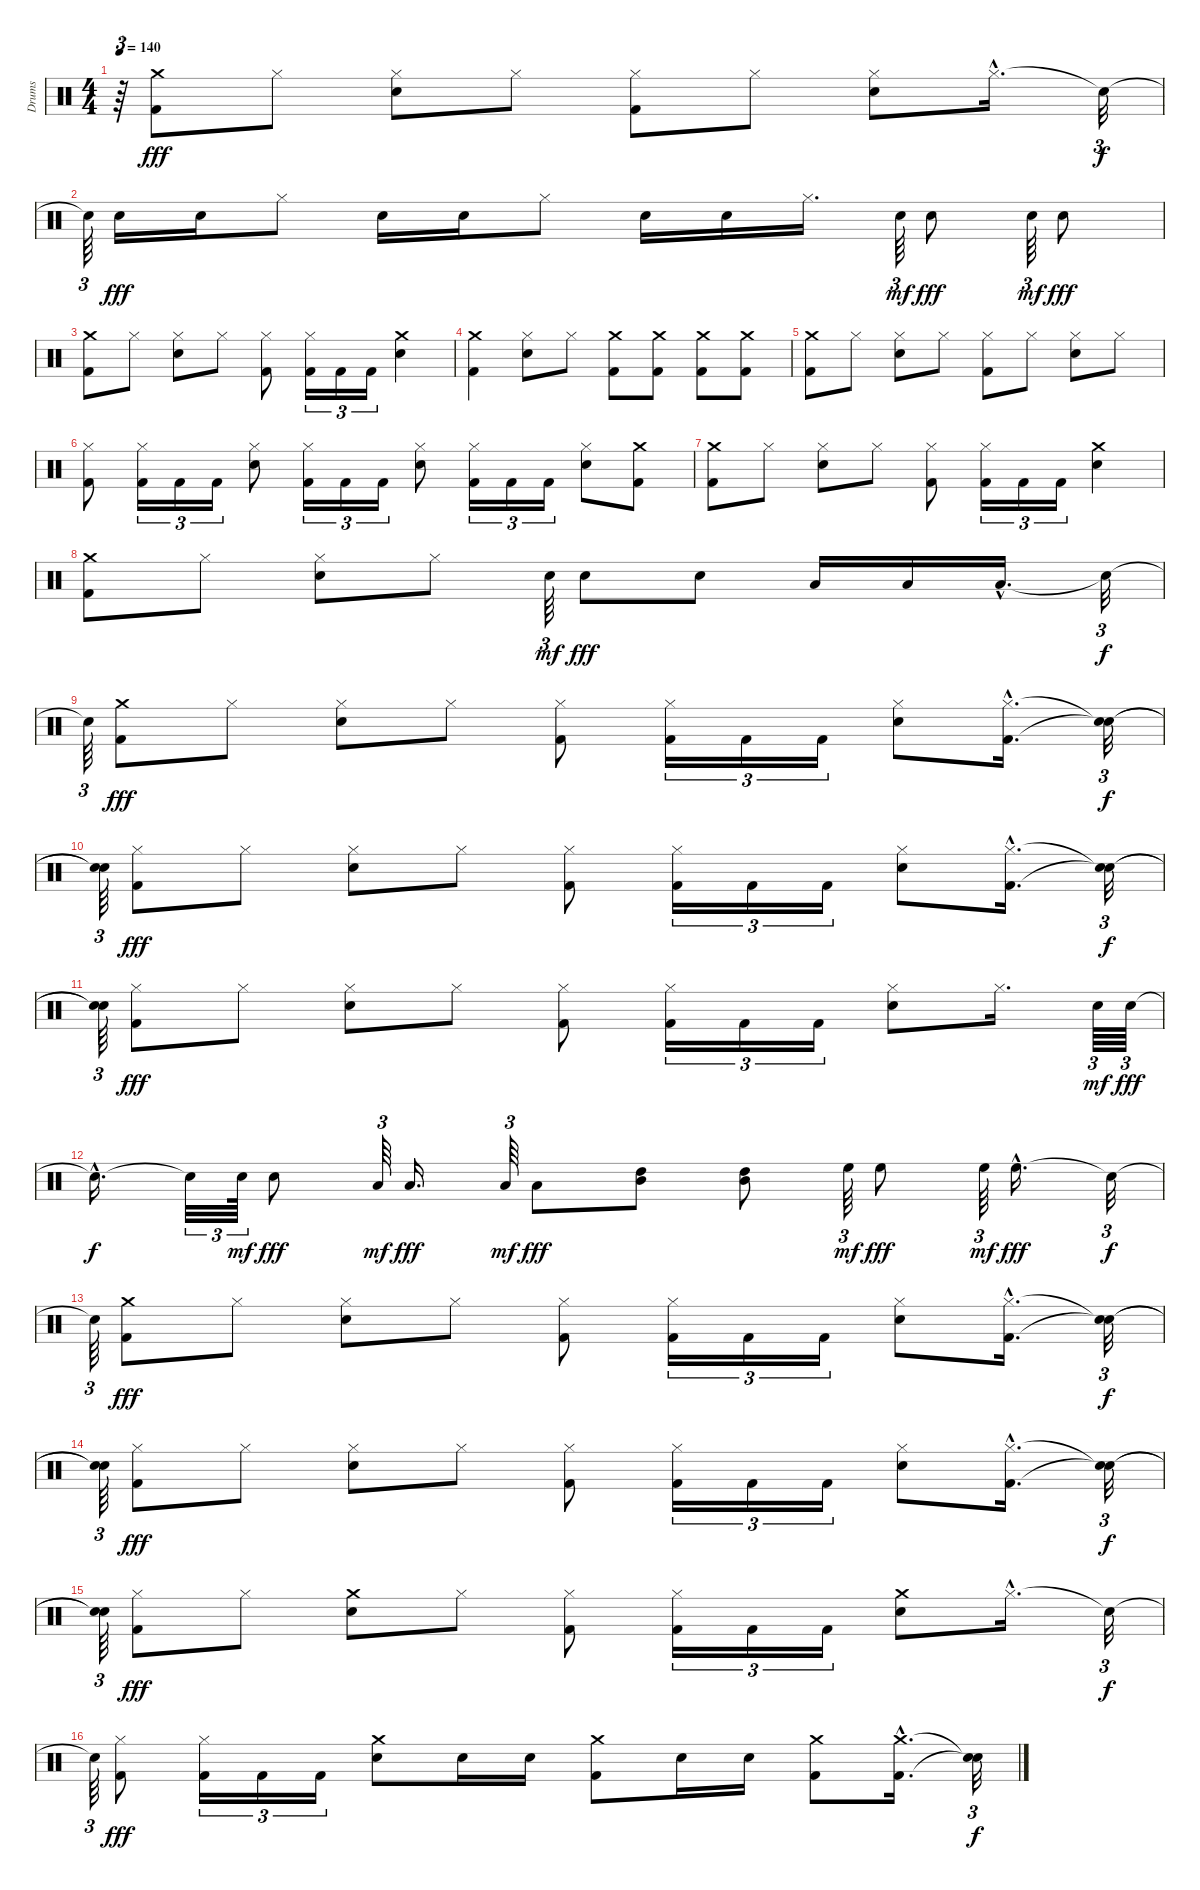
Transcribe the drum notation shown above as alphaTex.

\track ("Drums" "Drums") {instrument percussion}
\staff {score}
\articulation defaults
\ts (4 4)
\tempo 140
\clef neutral
\ks c
r.64{tu (3 2) dy f} ("Crash medium (hit)" "Kick (hit) 2").8{dy fff} "Hi-Hat (closed)".8 ("Snare (hit) 2" "Hi-Hat (closed)").8 "Hi-Hat (closed)".8 ("Hi-Hat (closed)" "Kick (hit) 2").8 "Hi-Hat (closed)".8 ("Snare (hit) 2" "Hi-Hat (closed)").8 "Hi-Hat (closed)"{hac}.16{d} "Snare (hit)"{t}.32{tu (3 2) dy f} |
"Snare (hit)"{t}.64{tu (3 2)} "Snare (hit) 2".16{dy fff} "Snare (hit) 2".16 "Hi-Hat (closed)".8 "Snare (hit) 2".16 "Snare (hit) 2".16 "Hi-Hat (closed)".8 "Snare (hit) 2".16 "Snare (hit) 2".16 "Hi-Hat (closed)".16{d} "Snare (hit) 2".64{tu (3 2) dy mf} "Snare (hit) 2".8{dy fff} "Snare (hit) 2".64{tu (3 2) dy mf} "Snare (hit) 2".8{dy fff} |
("Crash medium (hit)" "Kick (hit) 2").8 "Hi-Hat (closed)".8 ("Snare (hit) 2" "Hi-Hat (closed)").8 "Hi-Hat (closed)".8 ("Hi-Hat (closed)" "Kick (hit) 2").8 ("Hi-Hat (closed)" "Kick (hit) 2").16{tu (3 2)} "Kick (hit) 2".16{tu (3 2)} "Kick (hit) 2".16{tu (3 2)} ("Snare (hit) 2" "Crash medium (hit)").4 |
("Kick (hit) 2" "Crash medium (hit)").4 ("Snare (hit) 2" "Hi-Hat (closed)").8 "Hi-Hat (closed)".8 ("Kick (hit) 2" "Crash medium (hit)").8 ("Kick (hit) 2" "Crash medium (hit)").8 ("Kick (hit) 2" "Crash medium (hit)").8 ("Kick (hit) 2" "Crash medium (hit)").8 |
("Crash medium (hit)" "Kick (hit) 2").8 "Hi-Hat (closed)".8 ("Snare (hit) 2" "Hi-Hat (closed)").8 "Hi-Hat (closed)".8 ("Hi-Hat (closed)" "Kick (hit) 2").8 "Hi-Hat (closed)".8 ("Snare (hit) 2" "Hi-Hat (closed)").8 "Hi-Hat (closed)".8 |
("Kick (hit) 2" "Hi-Hat (closed)").8 ("Kick (hit) 2" "Hi-Hat (closed)").16{tu (3 2)} "Kick (hit) 2".16{tu (3 2)} "Kick (hit) 2".16{tu (3 2)} ("Snare (hit) 2" "Hi-Hat (closed)").8 ("Kick (hit) 2" "Hi-Hat (closed)").16{tu (3 2)} "Kick (hit) 2".16{tu (3 2)} "Kick (hit) 2".16{tu (3 2)} ("Snare (hit) 2" "Hi-Hat (closed)").8 ("Kick (hit) 2" "Hi-Hat (closed)").16{tu (3 2)} "Kick (hit) 2".16{tu (3 2)} "Kick (hit) 2".16{tu (3 2)} ("Snare (hit) 2" "Hi-Hat (closed)").8 ("Crash medium (hit)" "Kick (hit) 2").8 |
("Crash medium (hit)" "Kick (hit) 2").8 "Hi-Hat (closed)".8 ("Snare (hit) 2" "Hi-Hat (closed)").8 "Hi-Hat (closed)".8 ("Hi-Hat (closed)" "Kick (hit) 2").8 ("Hi-Hat (closed)" "Kick (hit) 2").16{tu (3 2)} "Kick (hit) 2".16{tu (3 2)} "Kick (hit) 2".16{tu (3 2)} ("Snare (hit) 2" "Crash medium (hit)").4 |
("Kick (hit) 2" "Crash medium (hit)").8 "Hi-Hat (closed)".8 ("Snare (hit) 2" "Hi-Hat (closed)").8 "Hi-Hat (closed)".8 "Snare (hit) 2".64{tu (3 2) dy mf} "Snare (hit) 2".8{dy fff} "Snare (hit) 2".8 "Low Tom (hit)".16 "Low Tom (hit)".16 "Low Tom (hit)"{hac}.16{d} "Snare (hit)"{t}.32{tu (3 2) dy f} |
"Snare (hit)"{t}.64{tu (3 2)} ("Crash medium (hit)" "Kick (hit) 2").8{dy fff} "Hi-Hat (closed)".8 ("Snare (hit) 2" "Hi-Hat (closed)").8 "Hi-Hat (closed)".8 ("Kick (hit) 2" "Hi-Hat (closed)").8 ("Kick (hit) 2" "Hi-Hat (closed)").16{tu (3 2)} "Kick (hit) 2".16{tu (3 2)} "Kick (hit) 2".16{tu (3 2)} ("Snare (hit) 2" "Hi-Hat (closed)").8 ("Kick (hit) 2"{hac} "Hi-Hat (closed)"{hac}).16{d} ("Snare (hit)"{t} "Snare (hit)"{t}).32{tu (3 2) dy f} |
("Snare (hit)"{t} "Snare (hit)"{t}).64{tu (3 2)} ("Hi-Hat (closed)" "Kick (hit) 2").8{dy fff} "Hi-Hat (closed)".8 ("Snare (hit) 2" "Hi-Hat (closed)").8 "Hi-Hat (closed)".8 ("Kick (hit) 2" "Hi-Hat (closed)").8 ("Kick (hit) 2" "Hi-Hat (closed)").16{tu (3 2)} "Kick (hit) 2".16{tu (3 2)} "Kick (hit) 2".16{tu (3 2)} ("Snare (hit) 2" "Hi-Hat (closed)").8 ("Kick (hit) 2"{hac} "Hi-Hat (closed)"{hac}).16{d} ("Snare (hit)"{t} "Snare (hit)"{t}).32{tu (3 2) dy f} |
("Snare (hit)"{t} "Snare (hit)"{t}).64{tu (3 2)} ("Hi-Hat (closed)" "Kick (hit) 2").8{dy fff} "Hi-Hat (closed)".8 ("Snare (hit) 2" "Hi-Hat (closed)").8 "Hi-Hat (closed)".8 ("Kick (hit) 2" "Hi-Hat (closed)").8 ("Kick (hit) 2" "Hi-Hat (closed)").16{tu (3 2)} "Kick (hit) 2".16{tu (3 2)} "Kick (hit) 2".16{tu (3 2)} ("Snare (hit) 2" "Hi-Hat (closed)").8 "Hi-Hat (closed)".16{d} "Snare (hit) 2".64{tu (3 2) dy mf} "Snare (hit) 2".64{tu (3 2) dy fff} |
"Snare (hit)"{hac t}.16{d dy f} "Snare (hit)"{t}.32{tu (3 2)} "Snare (hit) 2".64{tu (3 2) dy mf} "Snare (hit) 2".8{dy fff} "Low Tom (hit)".64{tu (3 2) dy mf} "Low Tom (hit)".16{d dy fff} "Low Tom (hit)".64{tu (3 2) dy mf} "Low Tom (hit)".8{dy fff} ("High Tom (hit)" "Mid Tom (hit)").8 ("High Tom (hit)" "Mid Tom (hit)").8 "High Floor Tom (hit)".64{tu (3 2) dy mf} "High Floor Tom (hit)".8{dy fff} "High Floor Tom (hit)".64{tu (3 2) dy mf} "High Floor Tom (hit)"{hac}.16{d dy fff} "Snare (hit)"{t}.32{tu (3 2) dy f} |
"Snare (hit)"{t}.64{tu (3 2)} ("Crash medium (hit)" "Kick (hit) 2").8{dy fff} "Hi-Hat (closed)".8 ("Snare (hit) 2" "Hi-Hat (closed)").8 "Hi-Hat (closed)".8 ("Kick (hit) 2" "Hi-Hat (closed)").8 ("Kick (hit) 2" "Hi-Hat (closed)").16{tu (3 2)} "Kick (hit) 2".16{tu (3 2)} "Kick (hit) 2".16{tu (3 2)} ("Snare (hit) 2" "Hi-Hat (closed)").8 ("Kick (hit) 2"{hac} "Hi-Hat (closed)"{hac}).16{d} ("Snare (hit)"{t} "Snare (hit)"{t}).32{tu (3 2) dy f} |
("Snare (hit)"{t} "Snare (hit)"{t}).64{tu (3 2)} ("Hi-Hat (closed)" "Kick (hit) 2").8{dy fff} "Hi-Hat (closed)".8 ("Snare (hit) 2" "Hi-Hat (closed)").8 "Hi-Hat (closed)".8 ("Kick (hit) 2" "Hi-Hat (closed)").8 ("Kick (hit) 2" "Hi-Hat (closed)").16{tu (3 2)} "Kick (hit) 2".16{tu (3 2)} "Kick (hit) 2".16{tu (3 2)} ("Snare (hit) 2" "Hi-Hat (closed)").8 ("Kick (hit) 2"{hac} "Hi-Hat (closed)"{hac}).16{d} ("Snare (hit)"{t} "Snare (hit)"{t}).32{tu (3 2) dy f} |
("Snare (hit)"{t} "Snare (hit)"{t}).64{tu (3 2)} ("Hi-Hat (closed)" "Kick (hit) 2").8{dy fff} "Hi-Hat (closed)".8 ("Crash medium (hit)" "Snare (hit) 2").8 "Hi-Hat (closed)".8 ("Kick (hit) 2" "Hi-Hat (closed)").8 ("Kick (hit) 2" "Hi-Hat (closed)").16{tu (3 2)} "Kick (hit) 2".16{tu (3 2)} "Kick (hit) 2".16{tu (3 2)} ("Crash medium (hit)" "Snare (hit) 2").8 "Hi-Hat (closed)"{hac}.16{d} "Snare (hit)"{t}.32{tu (3 2) dy f} |
"Snare (hit)"{t}.64{tu (3 2)} ("Kick (hit) 2" "Hi-Hat (closed)").8{dy fff} ("Kick (hit) 2" "Hi-Hat (closed)").16{tu (3 2)} "Kick (hit) 2".16{tu (3 2)} "Kick (hit) 2".16{tu (3 2)} ("Snare (hit) 2" "Crash medium (hit)").8 "Snare (hit) 2".16 "Snare (hit) 2".16 ("Kick (hit) 2" "Crash medium (hit)").8 "Snare (hit) 2".16 "Snare (hit) 2".16 ("Kick (hit) 2" "Crash medium (hit)").8 ("Kick (hit) 2"{hac} "Crash medium (hit)"{hac}).16{d} ("Snare (hit)"{t} "Snare (hit)"{t}).32{tu (3 2) dy f}
